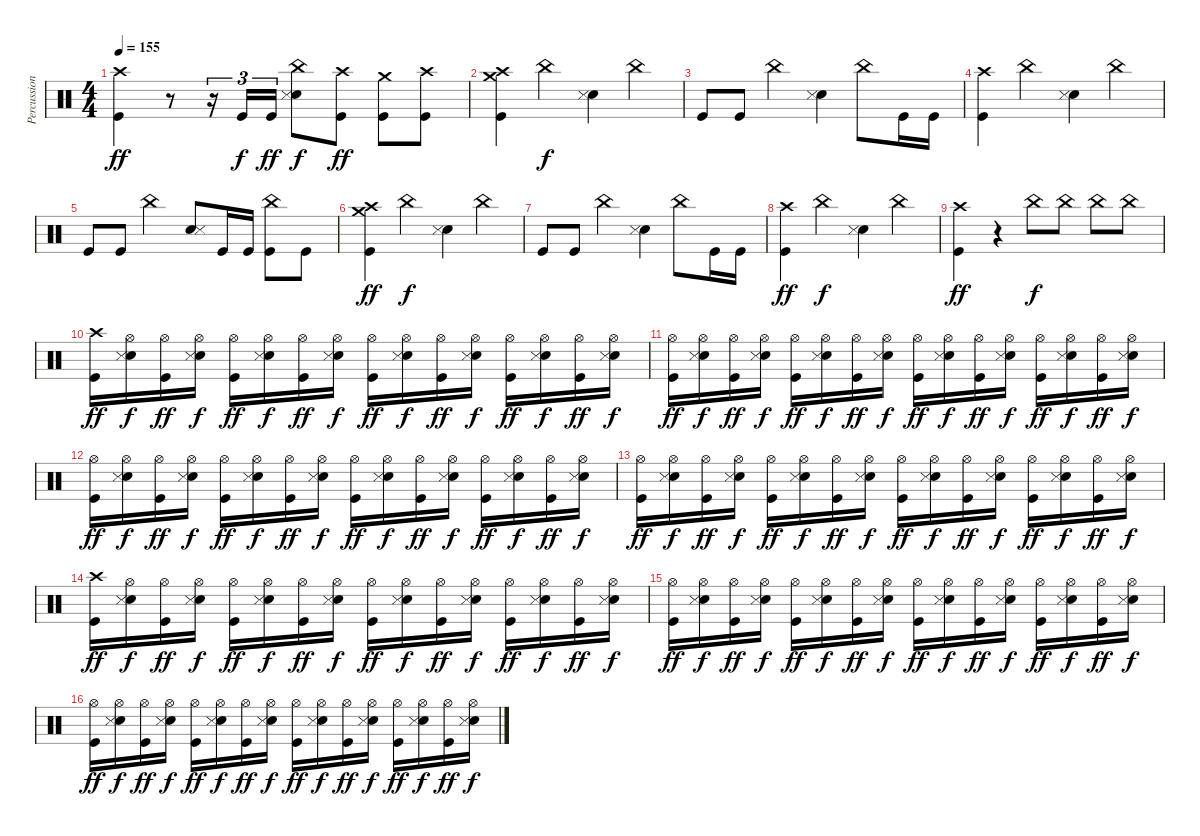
\track ("Percussions" "Percussion") {instrument percussion}
\staff {score}
\articulation defaults
\ts (4 4)
\tempo 155
\clef neutral
\ks c
("Crash high (hit)" "Kick (hit)").4{dy ff} r.8 r.16{tu (3 2)} "Kick (hit)".16{tu (3 2) dy f} "Kick (hit)".16{tu (3 2) dy ff} ("China (hit)" "Electric Snare (hit)" "Snare (side stick) 3").8{dy f} ("Crash high (hit)" "Kick (hit)").8{dy ff} ("Crash medium (hit)" "Kick (hit)").8 ("Crash high (hit)" "Kick (hit)").8 |
("Crash high (hit)" "Crash medium (hit)" "Kick (hit)").4 "China (hit)".4{dy f} ("Electric Snare (hit)" "Snare (side stick) 3").4 "China (hit)".4 |
"Kick (hit)".8 "Kick (hit)".8 "China (hit)".4 ("Electric Snare (hit)" "Snare (side stick) 3").4 "China (hit)".8 "Kick (hit)".16 "Kick (hit)".16 |
("Crash high (hit)" "Kick (hit)").4 "China (hit)".4 ("Electric Snare (hit)" "Snare (side stick) 3").4 "China (hit)".4 |
"Kick (hit)".8 "Kick (hit)".8 "China (hit)".4 ("Electric Snare (hit)" "Snare (side stick) 3").8 "Kick (hit)".16 "Kick (hit)".16 ("China (hit)" "Kick (hit)").8 "Kick (hit)".8 |
("Crash high (hit)" "Crash medium (hit)" "Kick (hit)").4{dy ff} "China (hit)".4{dy f} ("Electric Snare (hit)" "Snare (side stick) 3").4 "China (hit)".4 |
"Kick (hit)".8 "Kick (hit)".8 "China (hit)".4 ("Electric Snare (hit)" "Snare (side stick) 3").4 "China (hit)".8 "Kick (hit)".16 "Kick (hit)".16 |
("Crash high (hit)" "Kick (hit)").4{dy ff} "China (hit)".4{dy f} ("Electric Snare (hit)" "Snare (side stick) 3").4 "China (hit)".4 |
("Crash high (hit)" "Kick (hit)").4{dy ff} r.4 "China (hit)".8{dy f} "China (hit)".8 "China (hit)".8 "China (hit)".8 |
("Crash high (hit)" "Kick (hit)").16{dy ff} ("Hi-Hat (open)" "Electric Snare (hit)" "Snare (side stick) 3").16{dy f} ("Hi-Hat (open)" "Kick (hit)").16{dy ff} ("Hi-Hat (open)" "Electric Snare (hit)" "Snare (side stick) 3").16{dy f} ("Hi-Hat (open)" "Kick (hit)").16{dy ff} ("Hi-Hat (open)" "Electric Snare (hit)" "Snare (side stick) 3").16{dy f} ("Hi-Hat (open)" "Kick (hit)").16{dy ff} ("Hi-Hat (open)" "Electric Snare (hit)" "Snare (side stick) 3").16{dy f} ("Hi-Hat (open)" "Kick (hit)").16{dy ff} ("Hi-Hat (open)" "Electric Snare (hit)" "Snare (side stick) 3").16{dy f} ("Hi-Hat (open)" "Kick (hit)").16{dy ff} ("Hi-Hat (open)" "Electric Snare (hit)" "Snare (side stick) 3").16{dy f} ("Hi-Hat (open)" "Kick (hit)").16{dy ff} ("Hi-Hat (open)" "Electric Snare (hit)" "Snare (side stick) 3").16{dy f} ("Hi-Hat (open)" "Kick (hit)").16{dy ff} ("Hi-Hat (open)" "Electric Snare (hit)" "Snare (side stick) 3").16{dy f} |
("Hi-Hat (open)" "Kick (hit)").16{dy ff} ("Hi-Hat (open)" "Electric Snare (hit)" "Snare (side stick) 3").16{dy f} ("Hi-Hat (open)" "Kick (hit)").16{dy ff} ("Hi-Hat (open)" "Electric Snare (hit)" "Snare (side stick) 3").16{dy f} ("Hi-Hat (open)" "Kick (hit)").16{dy ff} ("Hi-Hat (open)" "Electric Snare (hit)" "Snare (side stick) 3").16{dy f} ("Hi-Hat (open)" "Kick (hit)").16{dy ff} ("Hi-Hat (open)" "Electric Snare (hit)" "Snare (side stick) 3").16{dy f} ("Hi-Hat (open)" "Kick (hit)").16{dy ff} ("Hi-Hat (open)" "Electric Snare (hit)" "Snare (side stick) 3").16{dy f} ("Hi-Hat (open)" "Kick (hit)").16{dy ff} ("Hi-Hat (open)" "Electric Snare (hit)" "Snare (side stick) 3").16{dy f} ("Hi-Hat (open)" "Kick (hit)").16{dy ff} ("Hi-Hat (open)" "Electric Snare (hit)" "Snare (side stick) 3").16{dy f} ("Hi-Hat (open)" "Kick (hit)").16{dy ff} ("Hi-Hat (open)" "Electric Snare (hit)" "Snare (side stick) 3").16{dy f} |
("Hi-Hat (open)" "Kick (hit)").16{dy ff} ("Hi-Hat (open)" "Electric Snare (hit)" "Snare (side stick) 3").16{dy f} ("Hi-Hat (open)" "Kick (hit)").16{dy ff} ("Hi-Hat (open)" "Electric Snare (hit)" "Snare (side stick) 3").16{dy f} ("Hi-Hat (open)" "Kick (hit)").16{dy ff} ("Hi-Hat (open)" "Electric Snare (hit)" "Snare (side stick) 3").16{dy f} ("Hi-Hat (open)" "Kick (hit)").16{dy ff} ("Hi-Hat (open)" "Electric Snare (hit)" "Snare (side stick) 3").16{dy f} ("Hi-Hat (open)" "Kick (hit)").16{dy ff} ("Hi-Hat (open)" "Electric Snare (hit)" "Snare (side stick) 3").16{dy f} ("Hi-Hat (open)" "Kick (hit)").16{dy ff} ("Hi-Hat (open)" "Electric Snare (hit)" "Snare (side stick) 3").16{dy f} ("Hi-Hat (open)" "Kick (hit)").16{dy ff} ("Hi-Hat (open)" "Electric Snare (hit)" "Snare (side stick) 3").16{dy f} ("Hi-Hat (open)" "Kick (hit)").16{dy ff} ("Hi-Hat (open)" "Electric Snare (hit)" "Snare (side stick) 3").16{dy f} |
("Hi-Hat (open)" "Kick (hit)").16{dy ff} ("Hi-Hat (open)" "Electric Snare (hit)" "Snare (side stick) 3").16{dy f} ("Hi-Hat (open)" "Kick (hit)").16{dy ff} ("Hi-Hat (open)" "Electric Snare (hit)" "Snare (side stick) 3").16{dy f} ("Hi-Hat (open)" "Kick (hit)").16{dy ff} ("Hi-Hat (open)" "Electric Snare (hit)" "Snare (side stick) 3").16{dy f} ("Hi-Hat (open)" "Kick (hit)").16{dy ff} ("Hi-Hat (open)" "Electric Snare (hit)" "Snare (side stick) 3").16{dy f} ("Hi-Hat (open)" "Kick (hit)").16{dy ff} ("Hi-Hat (open)" "Electric Snare (hit)" "Snare (side stick) 3").16{dy f} ("Hi-Hat (open)" "Kick (hit)").16{dy ff} ("Hi-Hat (open)" "Electric Snare (hit)" "Snare (side stick) 3").16{dy f} ("Hi-Hat (open)" "Kick (hit)").16{dy ff} ("Hi-Hat (open)" "Electric Snare (hit)" "Snare (side stick) 3").16{dy f} ("Hi-Hat (open)" "Kick (hit)").16{dy ff} ("Hi-Hat (open)" "Electric Snare (hit)" "Snare (side stick) 3").16{dy f} |
("Crash high (hit)" "Kick (hit)").16{dy ff} ("Hi-Hat (open)" "Electric Snare (hit)" "Snare (side stick) 3").16{dy f} ("Hi-Hat (open)" "Kick (hit)").16{dy ff} ("Hi-Hat (open)" "Electric Snare (hit)" "Snare (side stick) 3").16{dy f} ("Hi-Hat (open)" "Kick (hit)").16{dy ff} ("Hi-Hat (open)" "Electric Snare (hit)" "Snare (side stick) 3").16{dy f} ("Hi-Hat (open)" "Kick (hit)").16{dy ff} ("Hi-Hat (open)" "Electric Snare (hit)" "Snare (side stick) 3").16{dy f} ("Hi-Hat (open)" "Kick (hit)").16{dy ff} ("Hi-Hat (open)" "Electric Snare (hit)" "Snare (side stick) 3").16{dy f} ("Hi-Hat (open)" "Kick (hit)").16{dy ff} ("Hi-Hat (open)" "Electric Snare (hit)" "Snare (side stick) 3").16{dy f} ("Hi-Hat (open)" "Kick (hit)").16{dy ff} ("Hi-Hat (open)" "Electric Snare (hit)" "Snare (side stick) 3").16{dy f} ("Hi-Hat (open)" "Kick (hit)").16{dy ff} ("Hi-Hat (open)" "Electric Snare (hit)" "Snare (side stick) 3").16{dy f} |
("Hi-Hat (open)" "Kick (hit)").16{dy ff} ("Hi-Hat (open)" "Electric Snare (hit)" "Snare (side stick) 3").16{dy f} ("Hi-Hat (open)" "Kick (hit)").16{dy ff} ("Hi-Hat (open)" "Electric Snare (hit)" "Snare (side stick) 3").16{dy f} ("Hi-Hat (open)" "Kick (hit)").16{dy ff} ("Hi-Hat (open)" "Electric Snare (hit)" "Snare (side stick) 3").16{dy f} ("Hi-Hat (open)" "Kick (hit)").16{dy ff} ("Hi-Hat (open)" "Electric Snare (hit)" "Snare (side stick) 3").16{dy f} ("Hi-Hat (open)" "Kick (hit)").16{dy ff} ("Hi-Hat (open)" "Electric Snare (hit)" "Snare (side stick) 3").16{dy f} ("Hi-Hat (open)" "Kick (hit)").16{dy ff} ("Hi-Hat (open)" "Electric Snare (hit)" "Snare (side stick) 3").16{dy f} ("Hi-Hat (open)" "Kick (hit)").16{dy ff} ("Hi-Hat (open)" "Electric Snare (hit)" "Snare (side stick) 3").16{dy f} ("Hi-Hat (open)" "Kick (hit)").16{dy ff} ("Hi-Hat (open)" "Electric Snare (hit)" "Snare (side stick) 3").16{dy f} |
("Hi-Hat (open)" "Kick (hit)").16{dy ff} ("Hi-Hat (open)" "Electric Snare (hit)" "Snare (side stick) 3").16{dy f} ("Hi-Hat (open)" "Kick (hit)").16{dy ff} ("Hi-Hat (open)" "Electric Snare (hit)" "Snare (side stick) 3").16{dy f} ("Hi-Hat (open)" "Kick (hit)").16{dy ff} ("Hi-Hat (open)" "Electric Snare (hit)" "Snare (side stick) 3").16{dy f} ("Hi-Hat (open)" "Kick (hit)").16{dy ff} ("Hi-Hat (open)" "Electric Snare (hit)" "Snare (side stick) 3").16{dy f} ("Hi-Hat (open)" "Kick (hit)").16{dy ff} ("Hi-Hat (open)" "Electric Snare (hit)" "Snare (side stick) 3").16{dy f} ("Hi-Hat (open)" "Kick (hit)").16{dy ff} ("Hi-Hat (open)" "Electric Snare (hit)" "Snare (side stick) 3").16{dy f} ("Hi-Hat (open)" "Kick (hit)").16{dy ff} ("Hi-Hat (open)" "Electric Snare (hit)" "Snare (side stick) 3").16{dy f} ("Hi-Hat (open)" "Kick (hit)").16{dy ff} ("Hi-Hat (open)" "Electric Snare (hit)" "Snare (side stick) 3").16{dy f}
